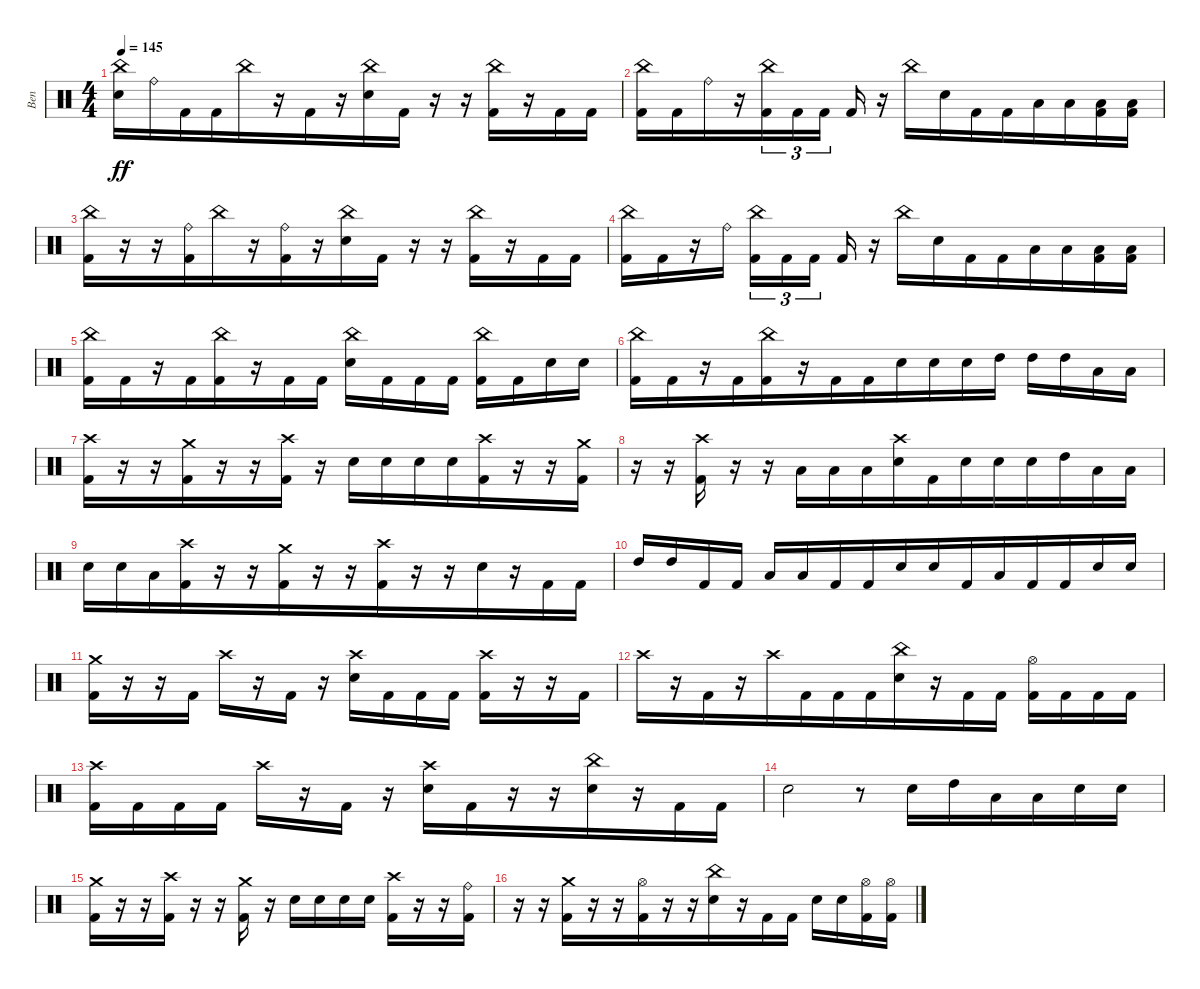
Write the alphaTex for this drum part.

\track ("Ben" "Ben") {instrument percussion}
\staff {score}
\articulation defaults
\ts (4 4)
\tempo 145
\clef neutral
\ks c
("China (hit)" "Electric Snare (hit)").16{dy ff} "Ride (bell)".16{beam merge} "Kick (hit) 2".16{beam merge} "Kick (hit) 2".16{beam merge} "China (hit)".16 r.16{beam merge} "Kick (hit) 2".16{beam merge} r.16{beam merge} ("China (hit)" "Electric Snare (hit)").16{beam merge} "Kick (hit) 2".16 r.16{beam merge} r.16{beam merge} ("Kick (hit) 2" "China (hit)").16 r.16 "Kick (hit) 2".16{beam merge} "Kick (hit) 2".16 |
("Kick (hit) 2" "China (hit)").16{beam merge} "Kick (hit) 2".16 "Ride (bell)".16{beam merge} r.16 ("Kick (hit) 2" "China (hit)").16{tu (3 2)} "Kick (hit) 2".16{tu (3 2) beam merge} "Kick (hit) 2".16{tu (3 2) beam splitsecondary} "Kick (hit) 2".16 r.16{beam merge} "China (hit)".16{beam merge} "Electric Snare (hit)".16{beam merge} "Kick (hit) 2".16 "Kick (hit) 2".16{beam merge} "Low Tom (hit)".16 "Low Tom (hit)".16{beam merge} ("Low Floor Tom (hit)" "Kick (hit) 2").16{beam merge} ("Low Floor Tom (hit)" "Kick (hit) 2").16 |
("Kick (hit) 2" "China (hit)").16 r.16{beam merge} r.16{beam merge} ("Kick (hit) 2" "Ride (bell)").16{beam merge} "China (hit)".16 r.16{beam merge} ("Kick (hit) 2" "Ride (bell)").16{beam merge} r.16{beam merge} ("China (hit)" "Electric Snare (hit)").16{beam merge} "Kick (hit) 2".16 r.16{beam merge} r.16{beam merge} ("Kick (hit) 2" "China (hit)").16 r.16 "Kick (hit) 2".16{beam merge} "Kick (hit) 2".16 |
("Kick (hit) 2" "China (hit)").16{beam merge} "Kick (hit) 2".16 r.16{beam merge} "Ride (bell)".16 ("Kick (hit) 2" "China (hit)").16{tu (3 2)} "Kick (hit) 2".16{tu (3 2) beam merge} "Kick (hit) 2".16{tu (3 2) beam splitsecondary} "Kick (hit) 2".16 r.16{beam merge} "China (hit)".16{beam merge} "Electric Snare (hit)".16{beam merge} "Kick (hit) 2".16 "Kick (hit) 2".16{beam merge} "Low Tom (hit)".16 "Low Tom (hit)".16{beam merge} ("Low Floor Tom (hit)" "Kick (hit) 2").16{beam merge} ("Low Floor Tom (hit)" "Kick (hit) 2").16 |
("China (hit)" "Kick (hit) 2").16{beam merge} "Kick (hit) 2".16 r.16 "Kick (hit) 2".16{beam merge} ("China (hit)" "Kick (hit) 2").16 r.16 "Kick (hit) 2".16 "Kick (hit) 2".16 ("Electric Snare (hit)" "China (hit)").16{beam merge} "Kick (hit) 2".16 "Kick (hit) 2".16 "Kick (hit) 2".16 ("Kick (hit) 2" "China (hit)").16 "Kick (hit) 2".16 "Electric Snare (hit)".16 "Electric Snare (hit)".16 |
("China (hit)" "Kick (hit) 2").16{beam merge} "Kick (hit) 2".16 r.16 "Kick (hit) 2".16{beam merge} ("China (hit)" "Kick (hit) 2").16 r.16 "Kick (hit) 2".16 "Kick (hit) 2".16{beam merge} "Electric Snare (hit)".16 "Electric Snare (hit)".16 "Electric Snare (hit)".16 "High Tom (hit)".16 "High Tom (hit)".16{beam merge} "High Tom (hit)".16 "Low Tom (hit)".16 "Low Tom (hit)".16 |
("Crash high (hit)" "Kick (hit) 2").16{beam merge} r.16 r.16 ("Crash medium (hit)" "Kick (hit) 2").16{beam merge} r.16{beam merge} r.16 ("Crash high (hit)" "Kick (hit) 2").16 r.16 "Electric Snare (hit)".16 "Electric Snare (hit)".16 "Electric Snare (hit)".16 "Electric Snare (hit)".16{beam merge} ("Crash high (hit)" "Kick (hit) 2").16 r.16 r.16{beam merge} ("Kick (hit) 2" "Crash medium (hit)").16 |
r.16{beam merge} r.16{beam merge} ("Crash high (hit)" "Kick (hit) 2").16 r.16 r.16 "Low Tom (hit)".16 "Low Tom (hit)".16 "Low Tom (hit)".16{beam merge} ("Crash high (hit)" "Electric Snare (hit)").16{beam merge} "Kick (hit) 2".16{beam merge} "Electric Snare (hit)".16{beam merge} "Electric Snare (hit)".16{beam merge} "Electric Snare (hit)".16 "High Tom (hit)".16 "Low Tom (hit)".16{beam merge} "Low Tom (hit)".16 |
"Electric Snare (hit)".16{beam merge} "Electric Snare (hit)".16 "Low Tom (hit)".16{beam merge} ("Kick (hit) 2" "Crash high (hit)").16{beam merge} r.16{beam merge} r.16 ("Kick (hit) 2" "Crash medium (hit)").16{beam merge} r.16 r.16{beam merge} ("Kick (hit) 2" "Crash high (hit)").16{beam merge} r.16 r.16{beam merge} "Electric Snare (hit)".16{beam merge} r.16 "Kick (hit) 2".16 "Kick (hit) 2".16 |
"High Tom (hit)".16{beam merge} "High Tom (hit)".16 "Kick (hit) 2".16{beam merge} "Kick (hit) 2".16 "Low Tom (hit)".16{beam merge} "Low Tom (hit)".16 "Kick (hit) 2".16 "Kick (hit) 2".16{beam merge} "Electric Snare (hit)".16{beam merge} "Electric Snare (hit)".16{beam merge} "Kick (hit) 2".16 "Low Tom (hit)".16{beam merge} "Kick (hit) 2".16{beam merge} "Kick (hit) 2".16 "Electric Snare (hit)".16 "Electric Snare (hit)".16 |
("Kick (hit) 2" "Crash medium (hit)").16 r.16 r.16{beam merge} "Kick (hit) 2".16 "Crash high (hit)".16 r.16 "Kick (hit) 2".16 r.16{beam merge} ("Crash high (hit)" "Electric Snare (hit)").16 "Kick (hit) 2".16{beam merge} "Kick (hit) 2".16 "Kick (hit) 2".16 ("Crash high (hit)" "Kick (hit) 2").16 r.16 r.16 "Kick (hit) 2".16 |
"Crash high (hit)".16{beam merge} r.16{beam merge} "Kick (hit) 2".16{beam merge} r.16 "Crash high (hit)".16{beam merge} "Kick (hit) 2".16{beam merge} "Kick (hit) 2".16 "Kick (hit) 2".16{beam merge} ("Electric Snare (hit)" "China (hit)").16 r.16 "Kick (hit) 2".16 "Kick (hit) 2".16 ("Kick (hit) 2" "Hi-Hat (open)").16 "Kick (hit) 2".16{beam merge} "Kick (hit) 2".16 "Kick (hit) 2".16 |
("Kick (hit) 2" "Crash high (hit)").16 "Kick (hit) 2".16 "Kick (hit) 2".16{beam merge} "Kick (hit) 2".16 "Crash high (hit)".16 r.16 "Kick (hit) 2".16 r.16{beam merge} ("Crash high (hit)" "Electric Snare (hit)").16 "Kick (hit) 2".16{beam merge} r.16 r.16 ("China (hit)" "Electric Snare (hit)").16 r.16 "Kick (hit) 2".16 "Kick (hit) 2".16 |
"Electric Snare (hit)".2 r.8{beam merge} "Electric Snare (hit)".16 "High Tom (hit)".16{beam merge} "Low Tom (hit)".16{beam merge} "Low Floor Tom (hit)".16 "Electric Snare (hit)".16{beam merge} "Electric Snare (hit)".16 |
("Kick (hit) 2" "Crash medium (hit)").16 r.16 r.16{beam merge} ("Crash high (hit)" "Kick (hit) 2").16 r.16 r.16 ("Crash medium (hit)" "Kick (hit) 2").16 r.16{beam merge} "Electric Snare (hit)".16 "Electric Snare (hit)".16{beam merge} "Electric Snare (hit)".16 "Electric Snare (hit)".16 ("Kick (hit) 2" "Crash high (hit)").16 r.16 r.16 ("Kick (hit) 2" "Ride (bell)").16 |
r.16{beam merge} r.16{beam merge} ("Crash medium (hit)" "Kick (hit) 2").16{beam merge} r.16 r.16{beam merge} ("Hi-Hat (open)" "Kick (hit) 2").16{beam merge} r.16 r.16{beam merge} ("Electric Snare (hit)" "China (hit)").16 r.16 "Kick (hit) 2".16 "Kick (hit) 2".16 "Electric Snare (hit)".16 "Electric Snare (hit)".16{beam merge} ("Kick (hit) 2" "Hi-Hat (open)").16 ("Kick (hit) 2" "Hi-Hat (open)").16
